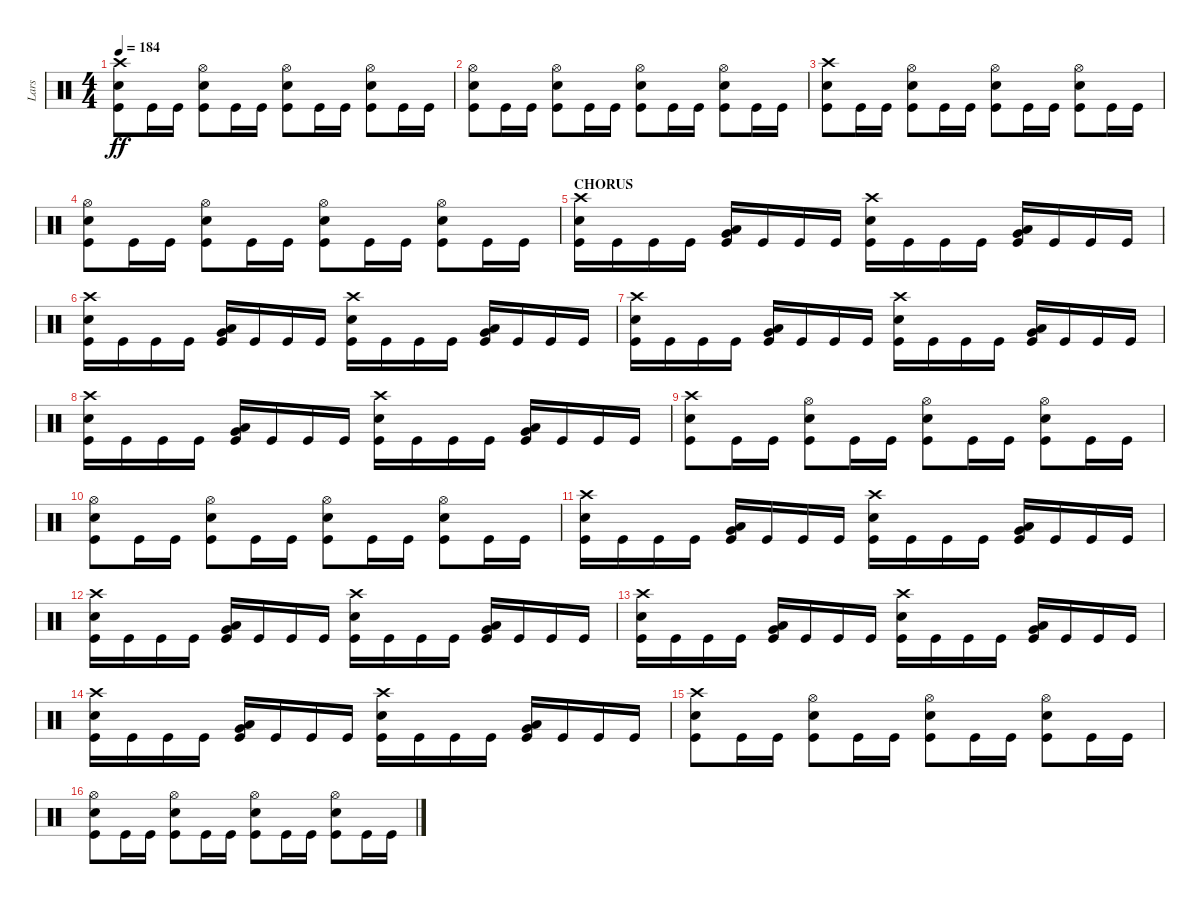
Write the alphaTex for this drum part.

\track ("Lars" "Lars") {instrument percussion}
\staff {score}
\articulation defaults
\ts (4 4)
\tempo 184
\clef neutral
\ks c
("Crash high (hit)" "Electric Snare (hit)" "Kick (hit)").8{dy ff} "Kick (hit)".16 "Kick (hit)".16 ("Hi-Hat (open)" "Electric Snare (hit)" "Kick (hit)").8 "Kick (hit)".16 "Kick (hit)".16 ("Hi-Hat (open)" "Electric Snare (hit)" "Kick (hit)").8 "Kick (hit)".16 "Kick (hit)".16 ("Hi-Hat (open)" "Electric Snare (hit)" "Kick (hit)").8 "Kick (hit)".16 "Kick (hit)".16 |
("Hi-Hat (open)" "Electric Snare (hit)" "Kick (hit)").8 "Kick (hit)".16 "Kick (hit)".16 ("Hi-Hat (open)" "Electric Snare (hit)" "Kick (hit)").8 "Kick (hit)".16 "Kick (hit)".16 ("Hi-Hat (open)" "Electric Snare (hit)" "Kick (hit)").8 "Kick (hit)".16 "Kick (hit)".16 ("Hi-Hat (open)" "Electric Snare (hit)" "Kick (hit)").8 "Kick (hit)".16 "Kick (hit)".16 |
("Crash high (hit)" "Electric Snare (hit)" "Kick (hit)").8 "Kick (hit)".16 "Kick (hit)".16 ("Hi-Hat (open)" "Electric Snare (hit)" "Kick (hit)").8 "Kick (hit)".16 "Kick (hit)".16 ("Hi-Hat (open)" "Electric Snare (hit)" "Kick (hit)").8 "Kick (hit)".16 "Kick (hit)".16 ("Hi-Hat (open)" "Electric Snare (hit)" "Kick (hit)").8 "Kick (hit)".16 "Kick (hit)".16 |
("Hi-Hat (open)" "Electric Snare (hit)" "Kick (hit)").8 "Kick (hit)".16 "Kick (hit)".16 ("Hi-Hat (open)" "Electric Snare (hit)" "Kick (hit)").8 "Kick (hit)".16 "Kick (hit)".16 ("Hi-Hat (open)" "Electric Snare (hit)" "Kick (hit)").8 "Kick (hit)".16 "Kick (hit)".16 ("Hi-Hat (open)" "Electric Snare (hit)" "Kick (hit)").8 "Kick (hit)".16 "Kick (hit)".16 |
\section ("" "CHORUS")
("Crash high (hit)" "Electric Snare (hit)" "Kick (hit)").16 "Kick (hit)".16 "Kick (hit)".16 "Kick (hit)".16 ("Low Tom (hit)" "Very Low Tom (hit)" "Kick (hit)").16 "Kick (hit)".16 "Kick (hit)".16 "Kick (hit)".16 ("Crash high (hit)" "Electric Snare (hit)" "Kick (hit)").16 "Kick (hit)".16 "Kick (hit)".16 "Kick (hit)".16 ("Low Tom (hit)" "Very Low Tom (hit)" "Kick (hit)").16 "Kick (hit)".16 "Kick (hit)".16 "Kick (hit)".16 |
("Crash high (hit)" "Electric Snare (hit)" "Kick (hit)").16 "Kick (hit)".16 "Kick (hit)".16 "Kick (hit)".16 ("Low Tom (hit)" "Very Low Tom (hit)" "Kick (hit)").16 "Kick (hit)".16 "Kick (hit)".16 "Kick (hit)".16 ("Crash high (hit)" "Electric Snare (hit)" "Kick (hit)").16 "Kick (hit)".16 "Kick (hit)".16 "Kick (hit)".16 ("Low Tom (hit)" "Very Low Tom (hit)" "Kick (hit)").16 "Kick (hit)".16 "Kick (hit)".16 "Kick (hit)".16 |
("Crash high (hit)" "Electric Snare (hit)" "Kick (hit)").16 "Kick (hit)".16 "Kick (hit)".16 "Kick (hit)".16 ("Low Tom (hit)" "Very Low Tom (hit)" "Kick (hit)").16 "Kick (hit)".16 "Kick (hit)".16 "Kick (hit)".16 ("Crash high (hit)" "Electric Snare (hit)" "Kick (hit)").16 "Kick (hit)".16 "Kick (hit)".16 "Kick (hit)".16 ("Low Tom (hit)" "Very Low Tom (hit)" "Kick (hit)").16 "Kick (hit)".16 "Kick (hit)".16 "Kick (hit)".16 |
("Crash high (hit)" "Electric Snare (hit)" "Kick (hit)").16 "Kick (hit)".16 "Kick (hit)".16 "Kick (hit)".16 ("Low Tom (hit)" "Very Low Tom (hit)" "Kick (hit)").16 "Kick (hit)".16 "Kick (hit)".16 "Kick (hit)".16 ("Crash high (hit)" "Electric Snare (hit)" "Kick (hit)").16 "Kick (hit)".16 "Kick (hit)".16 "Kick (hit)".16 ("Low Tom (hit)" "Very Low Tom (hit)" "Kick (hit)").16 "Kick (hit)".16 "Kick (hit)".16 "Kick (hit)".16 |
("Crash high (hit)" "Electric Snare (hit)" "Kick (hit)").8 "Kick (hit)".16 "Kick (hit)".16 ("Hi-Hat (open)" "Electric Snare (hit)" "Kick (hit)").8 "Kick (hit)".16 "Kick (hit)".16 ("Hi-Hat (open)" "Electric Snare (hit)" "Kick (hit)").8 "Kick (hit)".16 "Kick (hit)".16 ("Hi-Hat (open)" "Electric Snare (hit)" "Kick (hit)").8 "Kick (hit)".16 "Kick (hit)".16 |
("Hi-Hat (open)" "Electric Snare (hit)" "Kick (hit)").8 "Kick (hit)".16 "Kick (hit)".16 ("Hi-Hat (open)" "Electric Snare (hit)" "Kick (hit)").8 "Kick (hit)".16 "Kick (hit)".16 ("Hi-Hat (open)" "Electric Snare (hit)" "Kick (hit)").8 "Kick (hit)".16 "Kick (hit)".16 ("Hi-Hat (open)" "Electric Snare (hit)" "Kick (hit)").8 "Kick (hit)".16 "Kick (hit)".16 |
("Crash high (hit)" "Electric Snare (hit)" "Kick (hit)").16 "Kick (hit)".16 "Kick (hit)".16 "Kick (hit)".16 ("Low Tom (hit)" "Very Low Tom (hit)" "Kick (hit)").16 "Kick (hit)".16 "Kick (hit)".16 "Kick (hit)".16 ("Crash high (hit)" "Electric Snare (hit)" "Kick (hit)").16 "Kick (hit)".16 "Kick (hit)".16 "Kick (hit)".16 ("Low Tom (hit)" "Very Low Tom (hit)" "Kick (hit)").16 "Kick (hit)".16 "Kick (hit)".16 "Kick (hit)".16 |
("Crash high (hit)" "Electric Snare (hit)" "Kick (hit)").16 "Kick (hit)".16 "Kick (hit)".16 "Kick (hit)".16 ("Low Tom (hit)" "Very Low Tom (hit)" "Kick (hit)").16 "Kick (hit)".16 "Kick (hit)".16 "Kick (hit)".16 ("Crash high (hit)" "Electric Snare (hit)" "Kick (hit)").16 "Kick (hit)".16 "Kick (hit)".16 "Kick (hit)".16 ("Low Tom (hit)" "Very Low Tom (hit)" "Kick (hit)").16 "Kick (hit)".16 "Kick (hit)".16 "Kick (hit)".16 |
("Crash high (hit)" "Electric Snare (hit)" "Kick (hit)").16 "Kick (hit)".16 "Kick (hit)".16 "Kick (hit)".16 ("Low Tom (hit)" "Very Low Tom (hit)" "Kick (hit)").16 "Kick (hit)".16 "Kick (hit)".16 "Kick (hit)".16 ("Crash high (hit)" "Electric Snare (hit)" "Kick (hit)").16 "Kick (hit)".16 "Kick (hit)".16 "Kick (hit)".16 ("Low Tom (hit)" "Very Low Tom (hit)" "Kick (hit)").16 "Kick (hit)".16 "Kick (hit)".16 "Kick (hit)".16 |
("Crash high (hit)" "Electric Snare (hit)" "Kick (hit)").16 "Kick (hit)".16 "Kick (hit)".16 "Kick (hit)".16 ("Low Tom (hit)" "Very Low Tom (hit)" "Kick (hit)").16 "Kick (hit)".16 "Kick (hit)".16 "Kick (hit)".16 ("Crash high (hit)" "Electric Snare (hit)" "Kick (hit)").16 "Kick (hit)".16 "Kick (hit)".16 "Kick (hit)".16 ("Low Tom (hit)" "Very Low Tom (hit)" "Kick (hit)").16 "Kick (hit)".16 "Kick (hit)".16 "Kick (hit)".16 |
("Crash high (hit)" "Electric Snare (hit)" "Kick (hit)").8 "Kick (hit)".16 "Kick (hit)".16 ("Hi-Hat (open)" "Electric Snare (hit)" "Kick (hit)").8 "Kick (hit)".16 "Kick (hit)".16 ("Hi-Hat (open)" "Electric Snare (hit)" "Kick (hit)").8 "Kick (hit)".16 "Kick (hit)".16 ("Hi-Hat (open)" "Electric Snare (hit)" "Kick (hit)").8 "Kick (hit)".16 "Kick (hit)".16 |
("Hi-Hat (open)" "Electric Snare (hit)" "Kick (hit)").8 "Kick (hit)".16 "Kick (hit)".16 ("Hi-Hat (open)" "Electric Snare (hit)" "Kick (hit)").8 "Kick (hit)".16 "Kick (hit)".16 ("Hi-Hat (open)" "Electric Snare (hit)" "Kick (hit)").8 "Kick (hit)".16 "Kick (hit)".16 ("Hi-Hat (open)" "Electric Snare (hit)" "Kick (hit)").8 "Kick (hit)".16 "Kick (hit)".16
